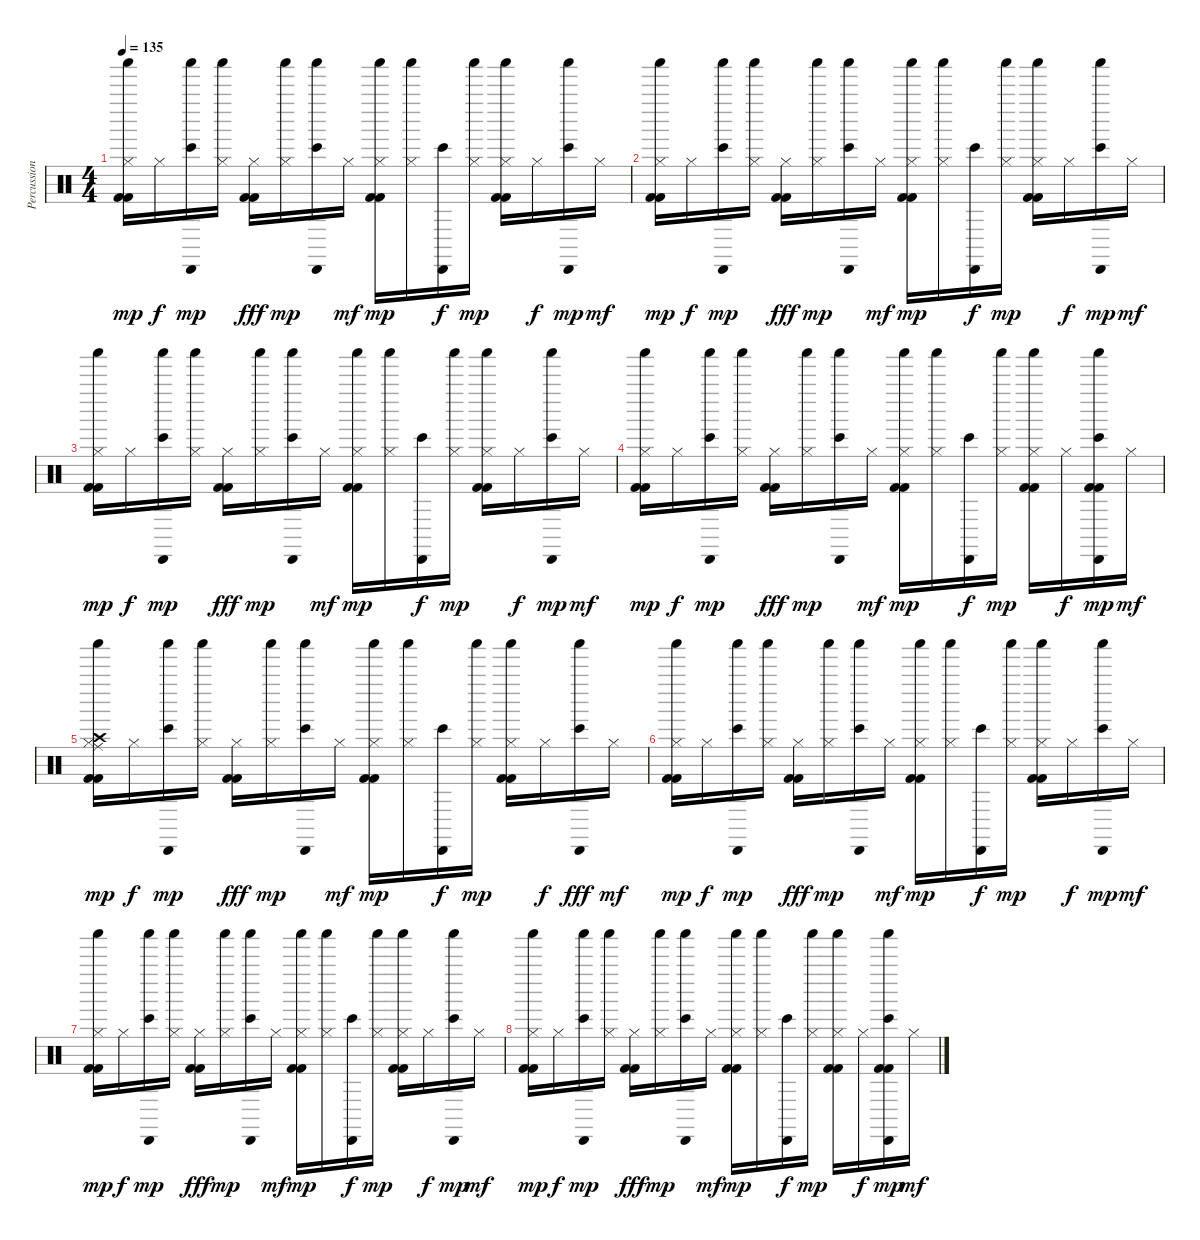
\track ("Percussion" "Percussion") {instrument percussion}
\staff {score}
\articulation defaults
\ts (4 4)
\tempo 135
\clef neutral
\ks c
("Hi-Hat (closed)" "Kick (hit) 2" "Kick (hit) 2" "Shaker (hit)").16{dy mp} "Hi-Hat (closed)".16{dy f} ("Cabasa (hit)" "Bongo High (hit)" "Shaker (hit)").16{dy mp} ("Hi-Hat (closed)" "Shaker (hit)").16 ("Hi-Hat (closed)" "Kick (hit) 2" "Kick (hit) 2").16{dy fff} ("Hi-Hat (closed)" "Shaker (hit)").16{dy mp} ("Cabasa (hit)" "Bongo High (hit)" "Shaker (hit)").16 "Hi-Hat (closed)".16{dy mf} ("Hi-Hat (closed)" "Kick (hit) 2" "Kick (hit) 2" "Shaker (hit)").16{dy mp} ("Hi-Hat (closed)" "Shaker (hit)").16 ("Cabasa (hit)" "Bongo High (hit)").16{dy f} ("Hi-Hat (closed)" "Shaker (hit)").16{dy mp} ("Hi-Hat (closed)" "Kick (hit) 2" "Kick (hit) 2" "Shaker (hit)").16 "Hi-Hat (closed)".16{dy f} ("Cabasa (hit)" "Bongo High (hit)" "Shaker (hit)").16{dy mp} "Hi-Hat (closed)".16{dy mf} |
("Hi-Hat (closed)" "Kick (hit) 2" "Kick (hit) 2" "Shaker (hit)").16{dy mp} "Hi-Hat (closed)".16{dy f} ("Cabasa (hit)" "Bongo High (hit)" "Shaker (hit)").16{dy mp} ("Hi-Hat (closed)" "Shaker (hit)").16 ("Hi-Hat (closed)" "Kick (hit) 2" "Kick (hit) 2").16{dy fff} ("Hi-Hat (closed)" "Shaker (hit)").16{dy mp} ("Cabasa (hit)" "Bongo High (hit)" "Shaker (hit)").16 "Hi-Hat (closed)".16{dy mf} ("Hi-Hat (closed)" "Kick (hit) 2" "Kick (hit) 2" "Shaker (hit)").16{dy mp} ("Hi-Hat (closed)" "Shaker (hit)").16 ("Cabasa (hit)" "Bongo High (hit)").16{dy f} ("Hi-Hat (closed)" "Shaker (hit)").16{dy mp} ("Hi-Hat (closed)" "Kick (hit) 2" "Kick (hit) 2" "Shaker (hit)").16 "Hi-Hat (closed)".16{dy f} ("Cabasa (hit)" "Bongo High (hit)" "Shaker (hit)").16{dy mp} "Hi-Hat (closed)".16{dy mf} |
("Hi-Hat (closed)" "Kick (hit) 2" "Kick (hit) 2" "Shaker (hit)").16{dy mp} "Hi-Hat (closed)".16{dy f} ("Cabasa (hit)" "Bongo High (hit)" "Shaker (hit)").16{dy mp} ("Hi-Hat (closed)" "Shaker (hit)").16 ("Hi-Hat (closed)" "Kick (hit) 2" "Kick (hit) 2").16{dy fff} ("Hi-Hat (closed)" "Shaker (hit)").16{dy mp} ("Cabasa (hit)" "Bongo High (hit)" "Shaker (hit)").16 "Hi-Hat (closed)".16{dy mf} ("Hi-Hat (closed)" "Kick (hit) 2" "Kick (hit) 2" "Shaker (hit)").16{dy mp} ("Hi-Hat (closed)" "Shaker (hit)").16 ("Cabasa (hit)" "Bongo High (hit)").16{dy f} ("Hi-Hat (closed)" "Shaker (hit)").16{dy mp} ("Hi-Hat (closed)" "Kick (hit) 2" "Kick (hit) 2" "Shaker (hit)").16 "Hi-Hat (closed)".16{dy f} ("Cabasa (hit)" "Bongo High (hit)" "Shaker (hit)").16{dy mp} "Hi-Hat (closed)".16{dy mf} |
("Hi-Hat (closed)" "Kick (hit) 2" "Kick (hit) 2" "Shaker (hit)").16{dy mp} "Hi-Hat (closed)".16{dy f} ("Cabasa (hit)" "Bongo High (hit)" "Shaker (hit)").16{dy mp} ("Hi-Hat (closed)" "Shaker (hit)").16 ("Hi-Hat (closed)" "Kick (hit) 2" "Kick (hit) 2").16{dy fff} ("Hi-Hat (closed)" "Shaker (hit)").16{dy mp} ("Cabasa (hit)" "Bongo High (hit)" "Shaker (hit)").16 "Hi-Hat (closed)".16{dy mf} ("Hi-Hat (closed)" "Kick (hit) 2" "Kick (hit) 2" "Shaker (hit)").16{dy mp} ("Hi-Hat (closed)" "Shaker (hit)").16 ("Cabasa (hit)" "Bongo High (hit)").16{dy f} ("Hi-Hat (closed)" "Shaker (hit)").16{dy mp} ("Hi-Hat (closed)" "Kick (hit) 2" "Kick (hit) 2" "Shaker (hit)").16 "Hi-Hat (closed)".16{dy f} ("Cabasa (hit)" "Bongo High (hit)" "Kick (hit) 2" "Kick (hit) 2" "Shaker (hit)").16{dy mp} "Hi-Hat (closed)".16{dy mf} |
("Ride (middle)" "Hi-Hat (closed)" "Crash high (hit)" "Kick (hit) 2" "Kick (hit) 2" "Shaker (hit)").16{dy mp volume 10} "Hi-Hat (closed)".16{dy f} ("Cabasa (hit)" "Bongo High (hit)" "Shaker (hit)").16{dy mp} ("Hi-Hat (closed)" "Shaker (hit)").16 ("Hi-Hat (closed)" "Kick (hit) 2" "Kick (hit) 2").16{dy fff} ("Hi-Hat (closed)" "Shaker (hit)").16{dy mp} ("Cabasa (hit)" "Bongo High (hit)" "Shaker (hit)").16 "Hi-Hat (closed)".16{dy mf} ("Hi-Hat (closed)" "Kick (hit) 2" "Kick (hit) 2" "Shaker (hit)").16{dy mp} ("Hi-Hat (closed)" "Shaker (hit)").16 ("Cabasa (hit)" "Bongo High (hit)").16{dy f} ("Hi-Hat (closed)" "Shaker (hit)").16{dy mp} ("Hi-Hat (closed)" "Kick (hit) 2" "Kick (hit) 2" "Shaker (hit)").16 "Hi-Hat (closed)".16{dy f} ("Cabasa (hit)" "Bongo High (hit)" "Shaker (hit)").16{dy fff} "Hi-Hat (closed)".16{dy mf} |
("Hi-Hat (closed)" "Kick (hit) 2" "Kick (hit) 2" "Shaker (hit)").16{dy mp} "Hi-Hat (closed)".16{dy f} ("Cabasa (hit)" "Bongo High (hit)" "Shaker (hit)").16{dy mp} ("Hi-Hat (closed)" "Shaker (hit)").16 ("Hi-Hat (closed)" "Kick (hit) 2" "Kick (hit) 2").16{dy fff} ("Hi-Hat (closed)" "Shaker (hit)").16{dy mp} ("Cabasa (hit)" "Bongo High (hit)" "Shaker (hit)").16 "Hi-Hat (closed)".16{dy mf} ("Hi-Hat (closed)" "Kick (hit) 2" "Kick (hit) 2" "Shaker (hit)").16{dy mp} ("Hi-Hat (closed)" "Shaker (hit)").16 ("Cabasa (hit)" "Bongo High (hit)").16{dy f} ("Hi-Hat (closed)" "Shaker (hit)").16{dy mp} ("Hi-Hat (closed)" "Kick (hit) 2" "Kick (hit) 2" "Shaker (hit)").16 "Hi-Hat (closed)".16{dy f} ("Cabasa (hit)" "Bongo High (hit)" "Shaker (hit)").16{dy mp} "Hi-Hat (closed)".16{dy mf} |
("Hi-Hat (closed)" "Kick (hit) 2" "Kick (hit) 2" "Shaker (hit)").16{dy mp} "Hi-Hat (closed)".16{dy f} ("Cabasa (hit)" "Bongo High (hit)" "Shaker (hit)").16{dy mp} ("Hi-Hat (closed)" "Shaker (hit)").16 ("Hi-Hat (closed)" "Kick (hit) 2" "Kick (hit) 2").16{dy fff} ("Hi-Hat (closed)" "Shaker (hit)").16{dy mp} ("Cabasa (hit)" "Bongo High (hit)" "Shaker (hit)").16 "Hi-Hat (closed)".16{dy mf} ("Hi-Hat (closed)" "Kick (hit) 2" "Kick (hit) 2" "Shaker (hit)").16{dy mp} ("Hi-Hat (closed)" "Shaker (hit)").16 ("Cabasa (hit)" "Bongo High (hit)").16{dy f} ("Hi-Hat (closed)" "Shaker (hit)").16{dy mp} ("Hi-Hat (closed)" "Kick (hit) 2" "Kick (hit) 2" "Shaker (hit)").16 "Hi-Hat (closed)".16{dy f} ("Cabasa (hit)" "Bongo High (hit)" "Shaker (hit)").16{dy mp} "Hi-Hat (closed)".16{dy mf} |
("Hi-Hat (closed)" "Kick (hit) 2" "Kick (hit) 2" "Shaker (hit)").16{dy mp} "Hi-Hat (closed)".16{dy f} ("Cabasa (hit)" "Bongo High (hit)" "Shaker (hit)").16{dy mp} ("Hi-Hat (closed)" "Shaker (hit)").16 ("Hi-Hat (closed)" "Kick (hit) 2" "Kick (hit) 2").16{dy fff} ("Hi-Hat (closed)" "Shaker (hit)").16{dy mp} ("Cabasa (hit)" "Bongo High (hit)" "Shaker (hit)").16 "Hi-Hat (closed)".16{dy mf} ("Hi-Hat (closed)" "Kick (hit) 2" "Kick (hit) 2" "Shaker (hit)").16{dy mp} ("Hi-Hat (closed)" "Shaker (hit)").16 ("Cabasa (hit)" "Bongo High (hit)").16{dy f} ("Hi-Hat (closed)" "Shaker (hit)").16{dy mp} ("Hi-Hat (closed)" "Kick (hit) 2" "Kick (hit) 2" "Shaker (hit)").16 "Hi-Hat (closed)".16{dy f} ("Cabasa (hit)" "Bongo High (hit)" "Kick (hit) 2" "Kick (hit) 2" "Shaker (hit)").16{dy mp} "Hi-Hat (closed)".16{dy mf}
